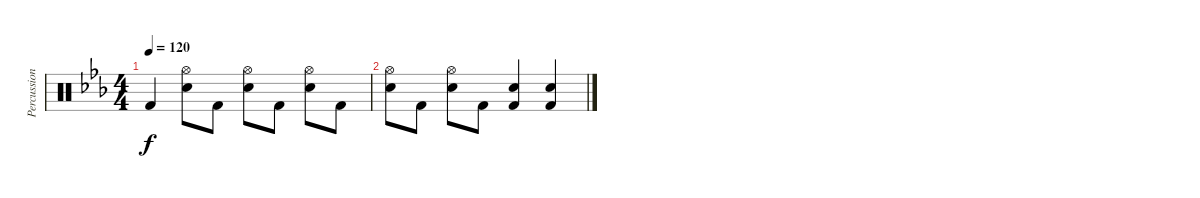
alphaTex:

\track ("Percussion" "Percussion") {instrument percussion}
\staff {score}
\articulation defaults
\ts (4 4)
\tempo 120
\clef neutral
\ks cminor "Kick (hit) 2".4{dy f}
("Snare (hit) 2" "Hi-Hat (open)").8 "Kick (hit) 2".8 ("Snare (hit) 2" "Hi-Hat (open)").8 "Kick (hit) 2".8 ("Snare (hit) 2" "Hi-Hat (open)").8 "Kick (hit) 2".8 |
("Snare (hit) 2" "Hi-Hat (open)").8 "Kick (hit) 2".8 ("Snare (hit) 2" "Hi-Hat (open)").8 "Kick (hit) 2".8 ("Snare (hit) 2" "Kick (hit) 2").4 ("Snare (hit) 2" "Kick (hit) 2").4
